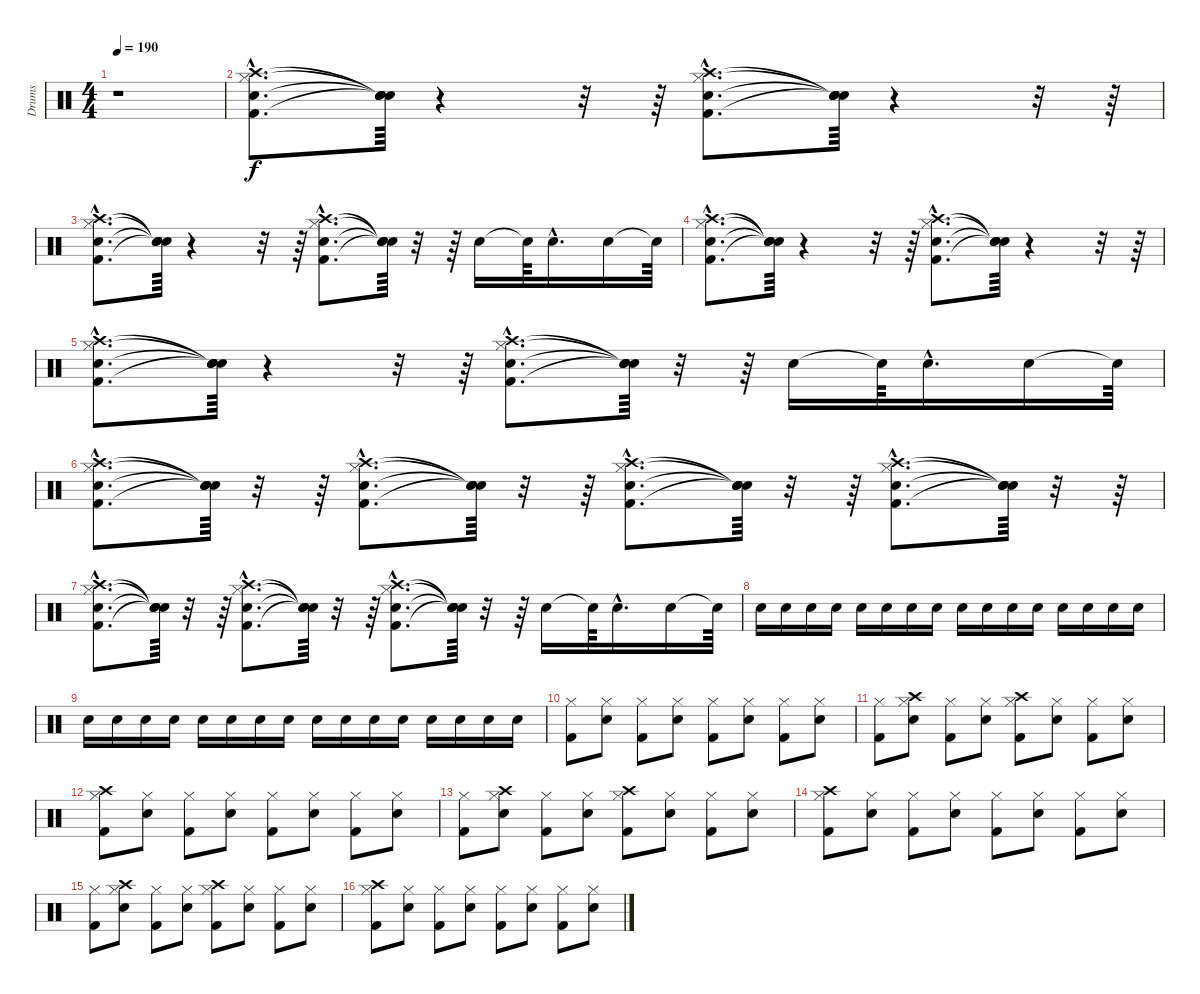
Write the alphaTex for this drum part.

\track ("Drums" "Drums") {instrument percussion}
\staff {score}
\articulation defaults
\ts (4 4)
\tempo 190
\clef neutral
\ks c
r.1{dy f} |
("Kick (hit) 2"{hac} "Snare (hit) 2"{hac} "Hi-Hat (closed)"{hac} "Crash high (hit)"{hac}).8{d} ("Snare (hit)"{t} "Snare (hit)"{t} "Snare (hit)"{t} "Snare (hit)"{t}).64 r.4 r.32 r.64 ("Kick (hit) 2"{hac} "Snare (hit) 2"{hac} "Hi-Hat (closed)"{hac} "Crash high (hit)"{hac}).8{d} ("Snare (hit)"{t} "Snare (hit)"{t} "Snare (hit)"{t} "Snare (hit)"{t}).64 r.4 r.32 r.64 |
("Kick (hit) 2"{hac} "Snare (hit) 2"{hac} "Hi-Hat (closed)"{hac} "Crash high (hit)"{hac}).8{d} ("Snare (hit)"{t} "Snare (hit)"{t} "Snare (hit)"{t} "Snare (hit)"{t}).64 r.4 r.32 r.64 ("Kick (hit) 2"{hac} "Snare (hit) 2"{hac} "Hi-Hat (closed)"{hac} "Crash high (hit)"{hac}).8{d} ("Snare (hit)"{t} "Snare (hit)"{t} "Snare (hit)"{t} "Snare (hit)"{t}).64 r.32 r.64 "Snare (hit) 2".16 "Snare (hit)"{t}.64 "Snare (hit) 2"{hac}.16{d} "Snare (hit) 2".16 "Snare (hit)"{t}.64 |
("Kick (hit) 2"{hac} "Snare (hit) 2"{hac} "Hi-Hat (closed)"{hac} "Crash high (hit)"{hac}).8{d} ("Snare (hit)"{t} "Snare (hit)"{t} "Snare (hit)"{t} "Snare (hit)"{t}).64 r.4 r.32 r.64 ("Kick (hit) 2"{hac} "Snare (hit) 2"{hac} "Hi-Hat (closed)"{hac} "Crash high (hit)"{hac}).8{d} ("Snare (hit)"{t} "Snare (hit)"{t} "Snare (hit)"{t} "Snare (hit)"{t}).64 r.4 r.32 r.64 |
("Kick (hit) 2"{hac} "Snare (hit) 2"{hac} "Hi-Hat (closed)"{hac} "Crash high (hit)"{hac}).8{d} ("Snare (hit)"{t} "Snare (hit)"{t} "Snare (hit)"{t} "Snare (hit)"{t}).64 r.4 r.32 r.64 ("Kick (hit) 2"{hac} "Snare (hit) 2"{hac} "Hi-Hat (closed)"{hac} "Crash high (hit)"{hac}).8{d} ("Snare (hit)"{t} "Snare (hit)"{t} "Snare (hit)"{t} "Snare (hit)"{t}).64 r.32 r.64 "Snare (hit) 2".16 "Snare (hit)"{t}.64 "Snare (hit) 2"{hac}.16{d} "Snare (hit) 2".16 "Snare (hit)"{t}.64 |
("Kick (hit) 2"{hac} "Snare (hit) 2"{hac} "Hi-Hat (closed)"{hac} "Crash high (hit)"{hac}).8{d} ("Snare (hit)"{t} "Snare (hit)"{t} "Snare (hit)"{t} "Snare (hit)"{t}).64 r.32 r.64 ("Kick (hit) 2"{hac} "Snare (hit) 2"{hac} "Hi-Hat (closed)"{hac} "Crash high (hit)"{hac}).8{d} ("Snare (hit)"{t} "Snare (hit)"{t} "Snare (hit)"{t} "Snare (hit)"{t}).64 r.32 r.64 ("Kick (hit) 2"{hac} "Snare (hit) 2"{hac} "Hi-Hat (closed)"{hac} "Crash high (hit)"{hac}).8{d} ("Snare (hit)"{t} "Snare (hit)"{t} "Snare (hit)"{t} "Snare (hit)"{t}).64 r.32 r.64 ("Kick (hit) 2"{hac} "Snare (hit) 2"{hac} "Hi-Hat (closed)"{hac} "Crash high (hit)"{hac}).8{d} ("Snare (hit)"{t} "Snare (hit)"{t} "Snare (hit)"{t} "Snare (hit)"{t}).64 r.32 r.64 |
("Kick (hit) 2"{hac} "Snare (hit) 2"{hac} "Hi-Hat (closed)"{hac} "Crash high (hit)"{hac}).8{d} ("Snare (hit)"{t} "Snare (hit)"{t} "Snare (hit)"{t} "Snare (hit)"{t}).64 r.32 r.64 ("Kick (hit) 2"{hac} "Snare (hit) 2"{hac} "Hi-Hat (closed)"{hac} "Crash high (hit)"{hac}).8{d} ("Snare (hit)"{t} "Snare (hit)"{t} "Snare (hit)"{t} "Snare (hit)"{t}).64 r.32 r.64 ("Kick (hit) 2"{hac} "Snare (hit) 2"{hac} "Hi-Hat (closed)"{hac} "Crash high (hit)"{hac}).8{d} ("Snare (hit)"{t} "Snare (hit)"{t} "Snare (hit)"{t} "Snare (hit)"{t}).64 r.32 r.64 "Snare (hit) 2".16 "Snare (hit)"{t}.64 "Snare (hit) 2"{hac}.16{d} "Snare (hit) 2".16 "Snare (hit)"{t}.64 |
"Snare (hit) 2".16 "Snare (hit) 2".16 "Snare (hit) 2".16 "Snare (hit) 2".16 "Snare (hit) 2".16 "Snare (hit) 2".16 "Snare (hit) 2".16 "Snare (hit) 2".16 "Snare (hit) 2".16 "Snare (hit) 2".16 "Snare (hit) 2".16 "Snare (hit) 2".16 "Snare (hit) 2".16 "Snare (hit) 2".16 "Snare (hit) 2".16 "Snare (hit) 2".16 |
"Snare (hit) 2".16 "Snare (hit) 2".16 "Snare (hit) 2".16 "Snare (hit) 2".16 "Snare (hit) 2".16 "Snare (hit) 2".16 "Snare (hit) 2".16 "Snare (hit) 2".16 "Snare (hit) 2".16 "Snare (hit) 2".16 "Snare (hit) 2".16 "Snare (hit) 2".16 "Snare (hit) 2".16 "Snare (hit) 2".16 "Snare (hit) 2".16 "Snare (hit) 2".16 |
("Kick (hit) 2" "Hi-Hat (closed)").8 ("Snare (hit) 2" "Hi-Hat (closed)").8 ("Kick (hit) 2" "Hi-Hat (closed)").8 ("Snare (hit) 2" "Hi-Hat (closed)").8 ("Kick (hit) 2" "Hi-Hat (closed)").8 ("Snare (hit) 2" "Hi-Hat (closed)").8 ("Kick (hit) 2" "Hi-Hat (closed)").8 ("Snare (hit) 2" "Hi-Hat (closed)").8 |
("Kick (hit) 2" "Hi-Hat (closed)").8 ("Snare (hit) 2" "Hi-Hat (closed)" "Crash high (hit)").8 ("Kick (hit) 2" "Hi-Hat (closed)").8 ("Snare (hit) 2" "Hi-Hat (closed)").8 ("Kick (hit) 2" "Hi-Hat (closed)" "Crash high (hit)").8 ("Snare (hit) 2" "Hi-Hat (closed)").8 ("Kick (hit) 2" "Hi-Hat (closed)").8 ("Snare (hit) 2" "Hi-Hat (closed)").8 |
("Kick (hit) 2" "Hi-Hat (closed)" "Crash high (hit)").8 ("Snare (hit) 2" "Hi-Hat (closed)").8 ("Kick (hit) 2" "Hi-Hat (closed)").8 ("Snare (hit) 2" "Hi-Hat (closed)").8 ("Kick (hit) 2" "Hi-Hat (closed)").8 ("Snare (hit) 2" "Hi-Hat (closed)").8 ("Kick (hit) 2" "Hi-Hat (closed)").8 ("Snare (hit) 2" "Hi-Hat (closed)").8 |
("Kick (hit) 2" "Hi-Hat (closed)").8 ("Snare (hit) 2" "Hi-Hat (closed)" "Crash high (hit)").8 ("Kick (hit) 2" "Hi-Hat (closed)").8 ("Snare (hit) 2" "Hi-Hat (closed)").8 ("Kick (hit) 2" "Hi-Hat (closed)" "Crash high (hit)").8 ("Snare (hit) 2" "Hi-Hat (closed)").8 ("Kick (hit) 2" "Hi-Hat (closed)").8 ("Snare (hit) 2" "Hi-Hat (closed)").8 |
("Kick (hit) 2" "Hi-Hat (closed)" "Crash high (hit)").8 ("Snare (hit) 2" "Hi-Hat (closed)").8 ("Kick (hit) 2" "Hi-Hat (closed)").8 ("Snare (hit) 2" "Hi-Hat (closed)").8 ("Kick (hit) 2" "Hi-Hat (closed)").8 ("Snare (hit) 2" "Hi-Hat (closed)").8 ("Kick (hit) 2" "Hi-Hat (closed)").8 ("Snare (hit) 2" "Hi-Hat (closed)").8 |
("Kick (hit) 2" "Hi-Hat (closed)").8 ("Snare (hit) 2" "Hi-Hat (closed)" "Crash high (hit)").8 ("Kick (hit) 2" "Hi-Hat (closed)").8 ("Snare (hit) 2" "Hi-Hat (closed)").8 ("Kick (hit) 2" "Hi-Hat (closed)" "Crash high (hit)").8 ("Snare (hit) 2" "Hi-Hat (closed)").8 ("Kick (hit) 2" "Hi-Hat (closed)").8 ("Snare (hit) 2" "Hi-Hat (closed)").8 |
("Kick (hit) 2" "Hi-Hat (closed)" "Crash high (hit)").8 ("Snare (hit) 2" "Hi-Hat (closed)").8 ("Kick (hit) 2" "Hi-Hat (closed)").8 ("Snare (hit) 2" "Hi-Hat (closed)").8 ("Kick (hit) 2" "Hi-Hat (closed)").8 ("Snare (hit) 2" "Hi-Hat (closed)").8 ("Kick (hit) 2" "Hi-Hat (closed)").8 ("Snare (hit) 2" "Hi-Hat (closed)").8
